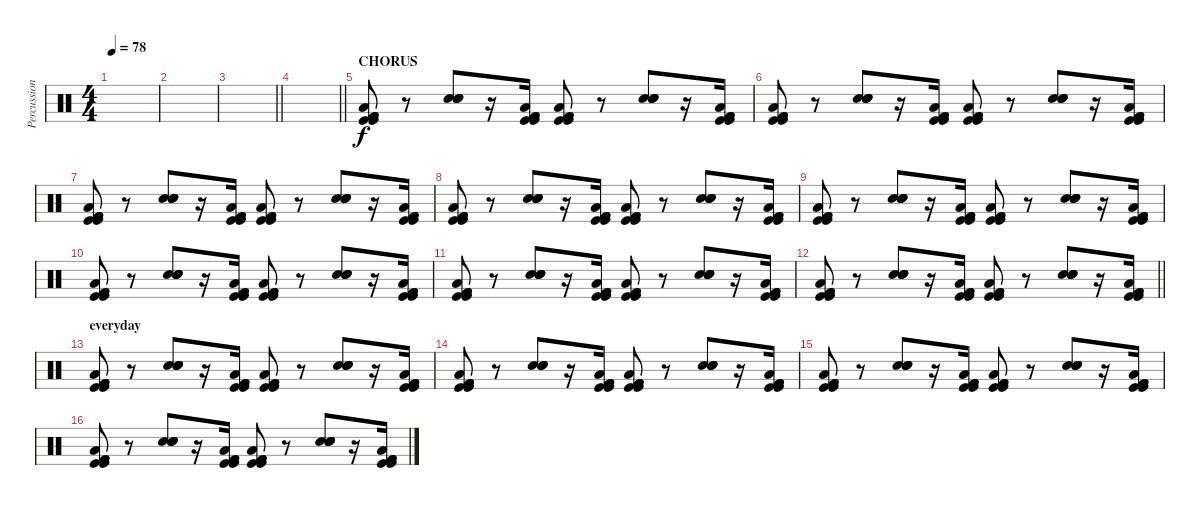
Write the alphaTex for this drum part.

\track ("Percussion" "Percussion") {instrument percussion}
\staff {score}
\articulation defaults
\ts (4 4)
\tempo 78
\clef neutral
\ks c
|
|
\barLineRight lightlight
|
\barLineRight lightlight
|
\section ("" "CHORUS")
("Kick (hit) 2" "Kick (hit) 2" "Kick (hit)" "Kick (hit)" "Low Floor Tom (hit)").8 r.8 ("Snare (hit) 2" "Snare (hit) 2" "Electric Snare (hit)" "Electric Snare (hit)").8 r.16 ("Kick (hit) 2" "Kick (hit) 2" "Kick (hit)" "Kick (hit)" "Low Floor Tom (hit)").16 ("Kick (hit) 2" "Kick (hit) 2" "Kick (hit)" "Kick (hit)" "Low Floor Tom (hit)").8 r.8 ("Snare (hit) 2" "Snare (hit) 2" "Electric Snare (hit)" "Electric Snare (hit)").8 r.16 ("Kick (hit) 2" "Kick (hit) 2" "Kick (hit)" "Kick (hit)" "Low Floor Tom (hit)").16 |
("Kick (hit) 2" "Kick (hit) 2" "Kick (hit)" "Kick (hit)" "Low Floor Tom (hit)").8 r.8 ("Snare (hit) 2" "Snare (hit) 2" "Electric Snare (hit)" "Electric Snare (hit)").8 r.16 ("Kick (hit) 2" "Kick (hit) 2" "Kick (hit)" "Kick (hit)" "Low Floor Tom (hit)").16 ("Kick (hit) 2" "Kick (hit) 2" "Kick (hit)" "Kick (hit)" "Low Floor Tom (hit)").8 r.8 ("Snare (hit) 2" "Snare (hit) 2" "Electric Snare (hit)" "Electric Snare (hit)").8 r.16 ("Kick (hit) 2" "Kick (hit) 2" "Kick (hit)" "Kick (hit)" "Low Floor Tom (hit)").16 |
("Kick (hit) 2" "Kick (hit) 2" "Kick (hit)" "Kick (hit)" "Low Floor Tom (hit)").8 r.8 ("Snare (hit) 2" "Snare (hit) 2" "Electric Snare (hit)" "Electric Snare (hit)").8 r.16 ("Kick (hit) 2" "Kick (hit) 2" "Kick (hit)" "Kick (hit)" "Low Floor Tom (hit)").16 ("Kick (hit) 2" "Kick (hit) 2" "Kick (hit)" "Kick (hit)" "Low Floor Tom (hit)").8 r.8 ("Snare (hit) 2" "Snare (hit) 2" "Electric Snare (hit)" "Electric Snare (hit)").8 r.16 ("Kick (hit) 2" "Kick (hit) 2" "Kick (hit)" "Kick (hit)" "Low Floor Tom (hit)").16 |
("Kick (hit) 2" "Kick (hit) 2" "Kick (hit)" "Kick (hit)" "Low Floor Tom (hit)").8 r.8 ("Snare (hit) 2" "Snare (hit) 2" "Electric Snare (hit)" "Electric Snare (hit)").8 r.16 ("Kick (hit) 2" "Kick (hit) 2" "Kick (hit)" "Kick (hit)" "Low Floor Tom (hit)").16 ("Kick (hit) 2" "Kick (hit) 2" "Kick (hit)" "Kick (hit)" "Low Floor Tom (hit)").8 r.8 ("Snare (hit) 2" "Snare (hit) 2" "Electric Snare (hit)" "Electric Snare (hit)").8 r.16 ("Kick (hit) 2" "Kick (hit) 2" "Kick (hit)" "Kick (hit)" "Low Floor Tom (hit)").16 |
("Kick (hit) 2" "Kick (hit) 2" "Kick (hit)" "Kick (hit)" "Low Floor Tom (hit)").8 r.8 ("Snare (hit) 2" "Snare (hit) 2" "Electric Snare (hit)" "Electric Snare (hit)").8 r.16 ("Kick (hit) 2" "Kick (hit) 2" "Kick (hit)" "Kick (hit)" "Low Floor Tom (hit)").16 ("Kick (hit) 2" "Kick (hit) 2" "Kick (hit)" "Kick (hit)" "Low Floor Tom (hit)").8 r.8 ("Snare (hit) 2" "Snare (hit) 2" "Electric Snare (hit)" "Electric Snare (hit)").8 r.16 ("Kick (hit) 2" "Kick (hit) 2" "Kick (hit)" "Kick (hit)" "Low Floor Tom (hit)").16 |
("Kick (hit) 2" "Kick (hit) 2" "Kick (hit)" "Kick (hit)" "Low Floor Tom (hit)").8 r.8 ("Snare (hit) 2" "Snare (hit) 2" "Electric Snare (hit)" "Electric Snare (hit)").8 r.16 ("Kick (hit) 2" "Kick (hit) 2" "Kick (hit)" "Kick (hit)" "Low Floor Tom (hit)").16 ("Kick (hit) 2" "Kick (hit) 2" "Kick (hit)" "Kick (hit)" "Low Floor Tom (hit)").8 r.8 ("Snare (hit) 2" "Snare (hit) 2" "Electric Snare (hit)" "Electric Snare (hit)").8 r.16 ("Kick (hit) 2" "Kick (hit) 2" "Kick (hit)" "Kick (hit)" "Low Floor Tom (hit)").16 |
("Kick (hit) 2" "Kick (hit) 2" "Kick (hit)" "Kick (hit)" "Low Floor Tom (hit)").8 r.8 ("Snare (hit) 2" "Snare (hit) 2" "Electric Snare (hit)" "Electric Snare (hit)").8 r.16 ("Kick (hit) 2" "Kick (hit) 2" "Kick (hit)" "Kick (hit)" "Low Floor Tom (hit)").16 ("Kick (hit) 2" "Kick (hit) 2" "Kick (hit)" "Kick (hit)" "Low Floor Tom (hit)").8 r.8 ("Snare (hit) 2" "Snare (hit) 2" "Electric Snare (hit)" "Electric Snare (hit)").8 r.16 ("Kick (hit) 2" "Kick (hit) 2" "Kick (hit)" "Kick (hit)" "Low Floor Tom (hit)").16 |
\barLineRight lightlight
("Kick (hit) 2" "Kick (hit) 2" "Kick (hit)" "Kick (hit)" "Low Floor Tom (hit)").8 r.8 ("Snare (hit) 2" "Snare (hit) 2" "Electric Snare (hit)" "Electric Snare (hit)").8 r.16 ("Kick (hit) 2" "Kick (hit) 2" "Kick (hit)" "Kick (hit)" "Low Floor Tom (hit)").16 ("Kick (hit) 2" "Kick (hit) 2" "Kick (hit)" "Kick (hit)" "Low Floor Tom (hit)").8 r.8 ("Snare (hit) 2" "Snare (hit) 2" "Electric Snare (hit)" "Electric Snare (hit)").8 r.16 ("Kick (hit) 2" "Kick (hit) 2" "Kick (hit)" "Kick (hit)" "Low Floor Tom (hit)").16 |
\section ("" "everyday")
("Kick (hit) 2" "Kick (hit) 2" "Kick (hit)" "Kick (hit)" "Low Floor Tom (hit)").8 r.8 ("Snare (hit) 2" "Snare (hit) 2" "Electric Snare (hit)" "Electric Snare (hit)").8 r.16 ("Kick (hit) 2" "Kick (hit) 2" "Kick (hit)" "Kick (hit)" "Low Floor Tom (hit)").16 ("Kick (hit) 2" "Kick (hit) 2" "Kick (hit)" "Kick (hit)" "Low Floor Tom (hit)").8 r.8 ("Snare (hit) 2" "Snare (hit) 2" "Electric Snare (hit)" "Electric Snare (hit)").8 r.16 ("Kick (hit) 2" "Kick (hit) 2" "Kick (hit)" "Kick (hit)" "Low Floor Tom (hit)").16 |
("Kick (hit) 2" "Kick (hit) 2" "Kick (hit)" "Kick (hit)" "Low Floor Tom (hit)").8 r.8 ("Snare (hit) 2" "Snare (hit) 2" "Electric Snare (hit)" "Electric Snare (hit)").8 r.16 ("Kick (hit) 2" "Kick (hit) 2" "Kick (hit)" "Kick (hit)" "Low Floor Tom (hit)").16 ("Kick (hit) 2" "Kick (hit) 2" "Kick (hit)" "Kick (hit)" "Low Floor Tom (hit)").8 r.8 ("Snare (hit) 2" "Snare (hit) 2" "Electric Snare (hit)" "Electric Snare (hit)").8 r.16 ("Kick (hit) 2" "Kick (hit) 2" "Kick (hit)" "Kick (hit)" "Low Floor Tom (hit)").16 |
("Kick (hit) 2" "Kick (hit) 2" "Kick (hit)" "Kick (hit)" "Low Floor Tom (hit)").8 r.8 ("Snare (hit) 2" "Snare (hit) 2" "Electric Snare (hit)" "Electric Snare (hit)").8 r.16 ("Kick (hit) 2" "Kick (hit) 2" "Kick (hit)" "Kick (hit)" "Low Floor Tom (hit)").16 ("Kick (hit) 2" "Kick (hit) 2" "Kick (hit)" "Kick (hit)" "Low Floor Tom (hit)").8 r.8 ("Snare (hit) 2" "Snare (hit) 2" "Electric Snare (hit)" "Electric Snare (hit)").8 r.16 ("Kick (hit) 2" "Kick (hit) 2" "Kick (hit)" "Kick (hit)" "Low Floor Tom (hit)").16 |
("Kick (hit) 2" "Kick (hit) 2" "Kick (hit)" "Kick (hit)" "Low Floor Tom (hit)").8 r.8 ("Snare (hit) 2" "Snare (hit) 2" "Electric Snare (hit)" "Electric Snare (hit)").8 r.16 ("Kick (hit) 2" "Kick (hit) 2" "Kick (hit)" "Kick (hit)" "Low Floor Tom (hit)").16 ("Kick (hit) 2" "Kick (hit) 2" "Kick (hit)" "Kick (hit)" "Low Floor Tom (hit)").8 r.8 ("Snare (hit) 2" "Snare (hit) 2" "Electric Snare (hit)" "Electric Snare (hit)").8 r.16 ("Kick (hit) 2" "Kick (hit) 2" "Kick (hit)" "Kick (hit)" "Low Floor Tom (hit)").16
